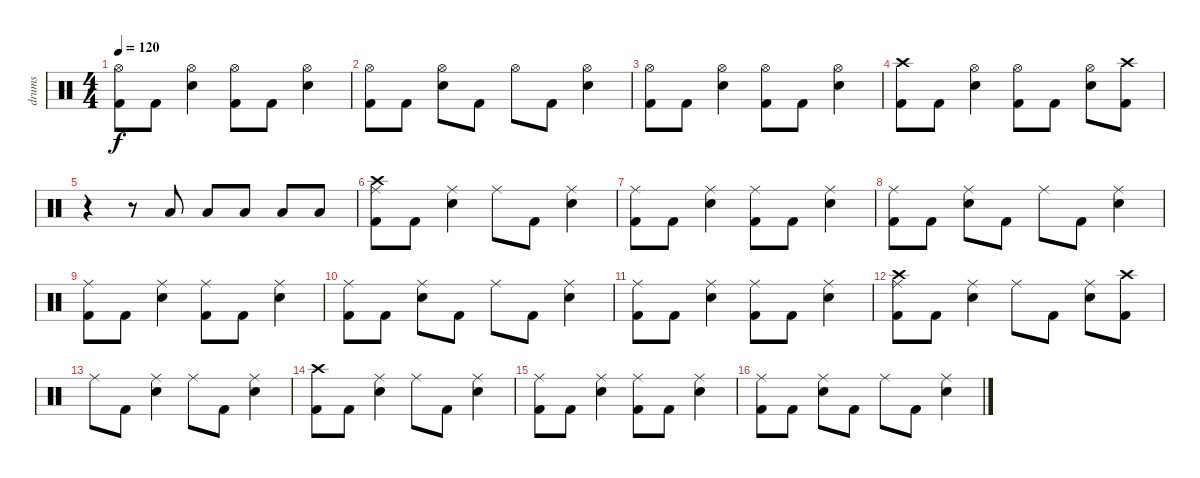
\track ("drums" "drums") {instrument percussion}
\staff {score}
\articulation defaults
\ts (4 4)
\tempo 120
\clef neutral
\ks c
("Hi-Hat (open)" "Kick (hit) 2").8{dy f} "Kick (hit) 2".8 ("Hi-Hat (open)" "Electric Snare (hit)").4 ("Hi-Hat (open)" "Kick (hit) 2").8 "Kick (hit) 2".8 ("Hi-Hat (open)" "Electric Snare (hit)").4 |
("Hi-Hat (open)" "Kick (hit) 2").8 "Kick (hit) 2".8 ("Hi-Hat (open)" "Electric Snare (hit)").8 "Kick (hit) 2".8 "Hi-Hat (open)".8 "Kick (hit) 2".8 ("Hi-Hat (open)" "Electric Snare (hit)").4 |
("Hi-Hat (open)" "Kick (hit) 2").8 "Kick (hit) 2".8 ("Hi-Hat (open)" "Electric Snare (hit)").4 ("Hi-Hat (open)" "Kick (hit) 2").8 "Kick (hit) 2".8 ("Hi-Hat (open)" "Electric Snare (hit)").4 |
("Crash high (hit)" "Kick (hit) 2").8 "Kick (hit) 2".8 ("Hi-Hat (open)" "Electric Snare (hit)").4 ("Hi-Hat (open)" "Kick (hit) 2").8 "Kick (hit) 2".8 ("Hi-Hat (open)" "Electric Snare (hit)").8 ("Crash high (hit)" "Kick (hit) 2").8 |
r.4 r.8 "Low Tom (hit)".8 "Low Tom (hit)".8 "Low Tom (hit)".8 "Low Tom (hit)".8 "Low Tom (hit)".8 |
("Crash high (hit)" "Ride (middle)" "Kick (hit) 2").8 "Kick (hit) 2".8 ("Ride (middle)" "Electric Snare (hit)").4 "Ride (middle)".8 "Kick (hit) 2".8 ("Ride (middle)" "Electric Snare (hit)").4 |
("Ride (middle)" "Kick (hit) 2").8 "Kick (hit) 2".8 ("Ride (middle)" "Electric Snare (hit)").4 ("Ride (middle)" "Kick (hit) 2").8 "Kick (hit) 2".8 ("Ride (middle)" "Electric Snare (hit)").4 |
("Ride (middle)" "Kick (hit) 2").8 "Kick (hit) 2".8 ("Ride (middle)" "Electric Snare (hit)").8 "Kick (hit) 2".8 "Ride (middle)".8 "Kick (hit) 2".8 ("Ride (middle)" "Electric Snare (hit)").4 |
("Ride (middle)" "Kick (hit) 2").8 "Kick (hit) 2".8 ("Ride (middle)" "Electric Snare (hit)").4 ("Ride (middle)" "Kick (hit) 2").8 "Kick (hit) 2".8 ("Ride (middle)" "Electric Snare (hit)").4 |
("Ride (middle)" "Kick (hit) 2").8 "Kick (hit) 2".8 ("Ride (middle)" "Electric Snare (hit)").8 "Kick (hit) 2".8 "Ride (middle)".8 "Kick (hit) 2".8 ("Ride (middle)" "Electric Snare (hit)").4 |
("Ride (middle)" "Kick (hit) 2").8 "Kick (hit) 2".8 ("Ride (middle)" "Electric Snare (hit)").4 ("Ride (middle)" "Kick (hit) 2").8 "Kick (hit) 2".8 ("Ride (middle)" "Electric Snare (hit)").4 |
("Crash high (hit)" "Ride (middle)" "Kick (hit) 2").8 "Kick (hit) 2".8 ("Ride (middle)" "Electric Snare (hit)").4 "Ride (middle)".8 "Kick (hit) 2".8 ("Ride (middle)" "Electric Snare (hit)").8 ("Crash high (hit)" "Kick (hit) 2").8 |
"Ride (middle)".8 "Kick (hit) 2".8 ("Ride (middle)" "Electric Snare (hit)").4 "Ride (middle)".8 "Kick (hit) 2".8 ("Ride (middle)" "Electric Snare (hit)").4 |
("Crash high (hit)" "Kick (hit) 2").8 "Kick (hit) 2".8 ("Ride (middle)" "Electric Snare (hit)").4 "Ride (middle)".8 "Kick (hit) 2".8 ("Ride (middle)" "Electric Snare (hit)").4 |
("Ride (middle)" "Kick (hit) 2").8 "Kick (hit) 2".8 ("Ride (middle)" "Electric Snare (hit)").4 ("Ride (middle)" "Kick (hit) 2").8 "Kick (hit) 2".8 ("Ride (middle)" "Electric Snare (hit)").4 |
("Ride (middle)" "Kick (hit) 2").8 "Kick (hit) 2".8 ("Ride (middle)" "Electric Snare (hit)").8 "Kick (hit) 2".8 "Ride (middle)".8 "Kick (hit) 2".8 ("Ride (middle)" "Electric Snare (hit)").4
